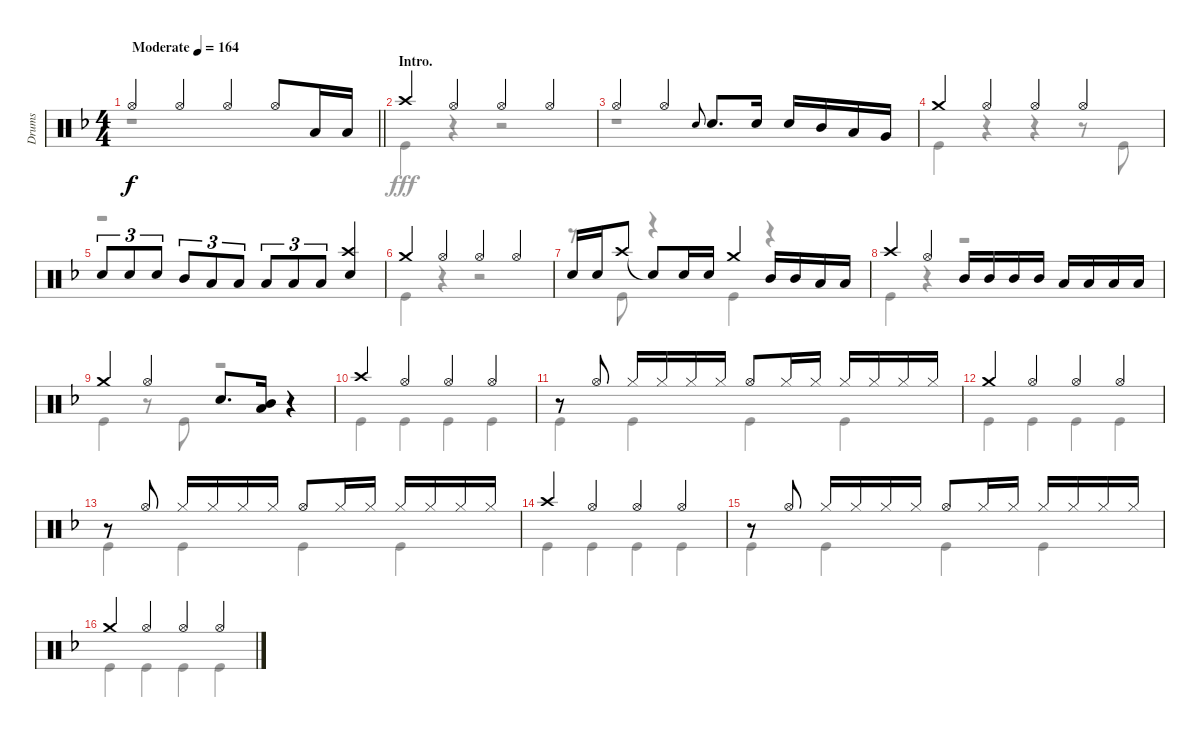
\track ("Drums" "Drums") {instrument percussion}
\staff {score}
\articulation defaults
\voice
\ts (4 4)
\tempo (164 "Moderate")
\clef neutral
\barLineRight lightlight
\ks f "Hi-Hat (open)".4{dy f} "Hi-Hat (open)".4 "Hi-Hat (open)".4 "Hi-Hat (open)".8 "Low Tom (hit)".16 "Low Tom (hit)".16
|
\section ("" "Intro.")
"Crash high (hit)".4 "Hi-Hat (open)".4 "Hi-Hat (open)".4 "Hi-Hat (open)".4 |
"Hi-Hat (open)".4 "Hi-Hat (open)".4 "Snare (hit) 2".8{gr onbeat} "Snare (hit) 2".8{d} "Snare (hit) 2".16 "Snare (hit) 2".16 "Mid Tom (hit)".16 "Low Tom (hit)".16 "Very Low Tom (hit)".16 |
"Crash medium (hit)".4 "Hi-Hat (open)".4 "Hi-Hat (open)".4 "Hi-Hat (open)".4 |
"Snare (hit) 2".8{tu (3 2)} "Snare (hit) 2".8{tu (3 2)} "Snare (hit) 2".8{tu (3 2)} "Mid Tom (hit)".8{tu (3 2)} "Low Tom (hit)".8{tu (3 2)} "Low Tom (hit)".8{tu (3 2)} "Low Tom (hit)".8{tu (3 2)} "Low Tom (hit)".8{tu (3 2)} "Low Tom (hit)".8{tu (3 2)} ("Crash high (hit)" "Snare (hit) 2").4 |
"Crash medium (hit)".4 "Hi-Hat (open)".4 "Hi-Hat (open)".4 "Hi-Hat (open)".4 |
"Snare (hit) 2".16 "Snare (hit) 2".16 "Crash high (hit)".8 "Snare (hit)"{t}.8 "Snare (hit) 2".16 "Snare (hit) 2".16 "Crash medium (hit)".4 "Mid Tom (hit)".16 "Mid Tom (hit)".16 "Low Tom (hit)".16 "Low Tom (hit)".16 |
"Crash high (hit)".4 "Hi-Hat (open)".4 "Mid Tom (hit)".16 "Mid Tom (hit)".16 "Mid Tom (hit)".16 "Mid Tom (hit)".16 "Low Tom (hit)".16 "Low Tom (hit)".16 "Low Tom (hit)".16 "Low Tom (hit)".16 |
"Crash medium (hit)".4 "Hi-Hat (open)".4 "Snare (hit) 2".8{d} ("Mid Tom (hit)" "Low Tom (hit)").16 r.4 |
"Crash high (hit)".4 "Hi-Hat (open)".4 "Hi-Hat (open)".4 "Hi-Hat (open)".4 |
r.8 "Hi-Hat (open)".8 "Hi-Hat (closed)".16 "Hi-Hat (closed)".16 "Hi-Hat (closed)".16 "Hi-Hat (closed)".16 "Hi-Hat (open)".8 "Hi-Hat (closed)".16 "Hi-Hat (closed)".16 "Hi-Hat (closed)".16 "Hi-Hat (closed)".16 "Hi-Hat (closed)".16 "Hi-Hat (closed)".16 |
"Crash medium (hit)".4 "Hi-Hat (open)".4 "Hi-Hat (open)".4 "Hi-Hat (open)".4 |
r.8 "Hi-Hat (open)".8 "Hi-Hat (closed)".16 "Hi-Hat (closed)".16 "Hi-Hat (closed)".16 "Hi-Hat (closed)".16 "Hi-Hat (open)".8 "Hi-Hat (closed)".16 "Hi-Hat (closed)".16 "Hi-Hat (closed)".16 "Hi-Hat (closed)".16 "Hi-Hat (closed)".16 "Hi-Hat (closed)".16 |
"Crash high (hit)".4 "Hi-Hat (open)".4 "Hi-Hat (open)".4 "Hi-Hat (open)".4 |
r.8 "Hi-Hat (open)".8 "Hi-Hat (closed)".16 "Hi-Hat (closed)".16 "Hi-Hat (closed)".16 "Hi-Hat (closed)".16 "Hi-Hat (open)".8 "Hi-Hat (closed)".16 "Hi-Hat (closed)".16 "Hi-Hat (closed)".16 "Hi-Hat (closed)".16 "Hi-Hat (closed)".16 "Hi-Hat (closed)".16 |
"Crash medium (hit)".4 "Hi-Hat (open)".4 "Hi-Hat (open)".4 "Hi-Hat (open)".4
\voice
\clef neutral
\ottava regular
\simile none
\barLineRight lightlight
\ks f
r.1{dy fff} |
"Kick (hit)".4 r.4 r.2 |
r.1 |
"Kick (hit)".4 r.4 r.4 r.8 "Kick (hit)".8 |
r.1 |
"Kick (hit)".4 r.4 r.2 |
r.8 "Kick (hit)".8 r.4 "Kick (hit)".4 r.4 |
"Kick (hit)".4 r.4 r.2 |
"Kick (hit)".4 r.8 "Kick (hit)".8 r.2 |
"Kick (hit)".4 "Kick (hit)".4 "Kick (hit)".4 "Kick (hit)".4 |
"Kick (hit)".4 "Kick (hit)".4 "Kick (hit)".4 "Kick (hit)".4 |
"Kick (hit)".4 "Kick (hit)".4 "Kick (hit)".4 "Kick (hit)".4 |
"Kick (hit)".4 "Kick (hit)".4 "Kick (hit)".4 "Kick (hit)".4 |
"Kick (hit)".4 "Kick (hit)".4 "Kick (hit)".4 "Kick (hit)".4 |
"Kick (hit)".4 "Kick (hit)".4 "Kick (hit)".4 "Kick (hit)".4 |
"Kick (hit)".4 "Kick (hit)".4 "Kick (hit)".4 "Kick (hit)".4
